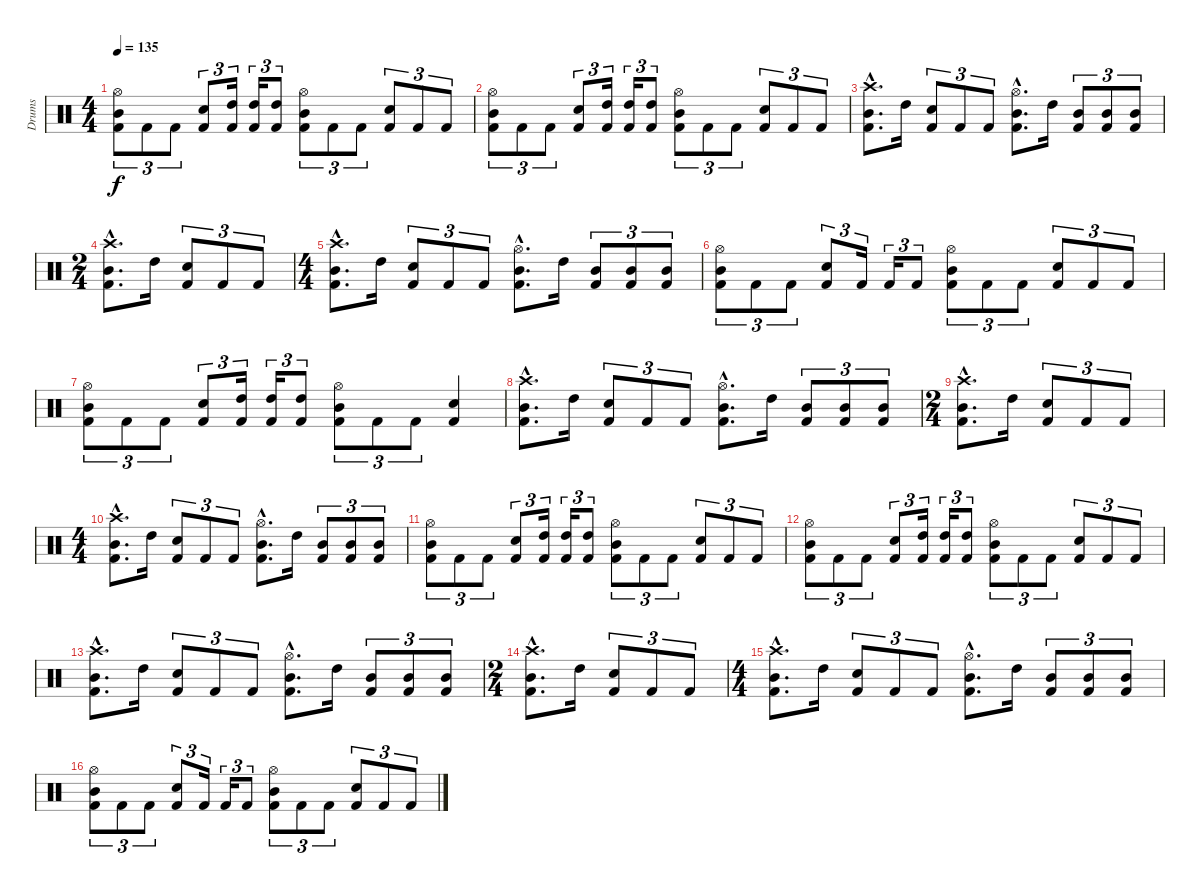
\track ("Drums" "Drums") {instrument percussion}
\staff {score}
\articulation defaults
\ts (4 4)
\tempo 135
\clef neutral
\ks c
("Hi-Hat (open)" "Mid Tom (hit)" "Kick (hit) 2").8{tu (3 2) dy f} "Kick (hit) 2".8{tu (3 2)} "Kick (hit) 2".8{tu (3 2)} ("Snare (hit) 2" "Kick (hit) 2").8{tu (3 2)} ("High Tom (hit)" "Kick (hit) 2").16{tu (3 2)} ("High Tom (hit)" "Kick (hit) 2").16{tu (3 2)} ("High Tom (hit)" "Kick (hit) 2").8{tu (3 2)} ("Hi-Hat (open)" "Mid Tom (hit)" "Kick (hit) 2").8{tu (3 2)} "Kick (hit) 2".8{tu (3 2)} "Kick (hit) 2".8{tu (3 2)} ("Snare (hit) 2" "Kick (hit) 2").8{tu (3 2)} "Kick (hit) 2".8{tu (3 2)} "Kick (hit) 2".8{tu (3 2)} |
("Hi-Hat (open)" "Mid Tom (hit)" "Kick (hit) 2").8{tu (3 2)} "Kick (hit) 2".8{tu (3 2)} "Kick (hit) 2".8{tu (3 2)} ("Snare (hit) 2" "Kick (hit) 2").8{tu (3 2)} ("High Tom (hit)" "Kick (hit) 2").16{tu (3 2)} ("High Tom (hit)" "Kick (hit) 2").16{tu (3 2)} ("High Tom (hit)" "Kick (hit) 2").8{tu (3 2)} ("Hi-Hat (open)" "Mid Tom (hit)" "Kick (hit) 2").8{tu (3 2)} "Kick (hit) 2".8{tu (3 2)} "Kick (hit) 2".8{tu (3 2)} ("Snare (hit) 2" "Kick (hit) 2").8{tu (3 2)} "Kick (hit) 2".8{tu (3 2)} "Kick (hit) 2".8{tu (3 2)} |
("Crash high (hit)"{hac} "Mid Tom (hit)"{hac} "Kick (hit) 2"{hac}).8{d} "High Tom (hit)".16 ("Snare (hit) 2" "Kick (hit) 2").8{tu (3 2)} "Kick (hit) 2".8{tu (3 2)} "Kick (hit) 2".8{tu (3 2)} ("Hi-Hat (open)"{hac} "Mid Tom (hit)"{hac} "Kick (hit) 2"{hac}).8{d} "High Tom (hit)".16 ("Mid Tom (hit)" "Kick (hit) 2").8{tu (3 2)} ("Mid Tom (hit)" "Kick (hit) 2").8{tu (3 2)} ("Mid Tom (hit)" "Kick (hit) 2").8{tu (3 2)} |
\ts (2 4)
("Crash high (hit)"{hac} "Mid Tom (hit)"{hac} "Kick (hit) 2"{hac}).8{d} "High Tom (hit)".16 ("Snare (hit) 2" "Kick (hit) 2").8{tu (3 2)} "Kick (hit) 2".8{tu (3 2)} "Kick (hit) 2".8{tu (3 2)} |
\ts (4 4)
("Crash high (hit)"{hac} "Mid Tom (hit)"{hac} "Kick (hit) 2"{hac}).8{d} "High Tom (hit)".16 ("Snare (hit) 2" "Kick (hit) 2").8{tu (3 2)} "Kick (hit) 2".8{tu (3 2)} "Kick (hit) 2".8{tu (3 2)} ("Hi-Hat (open)"{hac} "Mid Tom (hit)"{hac} "Kick (hit) 2"{hac}).8{d} "High Tom (hit)".16 ("Mid Tom (hit)" "Kick (hit) 2").8{tu (3 2)} ("Mid Tom (hit)" "Kick (hit) 2").8{tu (3 2)} ("Mid Tom (hit)" "Kick (hit) 2").8{tu (3 2)} |
("Hi-Hat (open)" "Mid Tom (hit)" "Kick (hit) 2").8{tu (3 2)} "Kick (hit) 2".8{tu (3 2)} "Kick (hit) 2".8{tu (3 2)} ("Snare (hit) 2" "Kick (hit) 2").8{tu (3 2)} "Kick (hit) 2".16{tu (3 2)} "Kick (hit) 2".16{tu (3 2)} "Kick (hit) 2".8{tu (3 2)} ("Hi-Hat (open)" "Mid Tom (hit)" "Kick (hit) 2").8{tu (3 2)} "Kick (hit) 2".8{tu (3 2)} "Kick (hit) 2".8{tu (3 2)} ("Snare (hit) 2" "Kick (hit) 2").8{tu (3 2)} "Kick (hit) 2".8{tu (3 2)} "Kick (hit) 2".8{tu (3 2)} |
("Hi-Hat (open)" "Mid Tom (hit)" "Kick (hit) 2").8{tu (3 2)} "Kick (hit) 2".8{tu (3 2)} "Kick (hit) 2".8{tu (3 2)} ("Snare (hit) 2" "Kick (hit) 2").8{tu (3 2)} ("High Tom (hit)" "Kick (hit) 2").16{tu (3 2)} ("High Tom (hit)" "Kick (hit) 2").16{tu (3 2)} ("High Tom (hit)" "Kick (hit) 2").8{tu (3 2)} ("Hi-Hat (open)" "Mid Tom (hit)" "Kick (hit) 2").8{tu (3 2)} "Kick (hit) 2".8{tu (3 2)} "Kick (hit) 2".8{tu (3 2)} ("Snare (hit) 2" "Kick (hit) 2").4 |
("Crash high (hit)"{hac} "Mid Tom (hit)"{hac} "Kick (hit) 2"{hac}).8{d} "High Tom (hit)".16 ("Snare (hit) 2" "Kick (hit) 2").8{tu (3 2)} "Kick (hit) 2".8{tu (3 2)} "Kick (hit) 2".8{tu (3 2)} ("Hi-Hat (open)"{hac} "Mid Tom (hit)"{hac} "Kick (hit) 2"{hac}).8{d} "High Tom (hit)".16 ("Mid Tom (hit)" "Kick (hit) 2").8{tu (3 2)} ("Mid Tom (hit)" "Kick (hit) 2").8{tu (3 2)} ("Mid Tom (hit)" "Kick (hit) 2").8{tu (3 2)} |
\ts (2 4)
("Crash high (hit)"{hac} "Mid Tom (hit)"{hac} "Kick (hit) 2"{hac}).8{d} "High Tom (hit)".16 ("Snare (hit) 2" "Kick (hit) 2").8{tu (3 2)} "Kick (hit) 2".8{tu (3 2)} "Kick (hit) 2".8{tu (3 2)} |
\ts (4 4)
("Crash high (hit)"{hac} "Mid Tom (hit)"{hac} "Kick (hit) 2"{hac}).8{d} "High Tom (hit)".16 ("Snare (hit) 2" "Kick (hit) 2").8{tu (3 2)} "Kick (hit) 2".8{tu (3 2)} "Kick (hit) 2".8{tu (3 2)} ("Hi-Hat (open)"{hac} "Mid Tom (hit)"{hac} "Kick (hit) 2"{hac}).8{d} "High Tom (hit)".16 ("Mid Tom (hit)" "Kick (hit) 2").8{tu (3 2)} ("Mid Tom (hit)" "Kick (hit) 2").8{tu (3 2)} ("Mid Tom (hit)" "Kick (hit) 2").8{tu (3 2)} |
("Hi-Hat (open)" "Mid Tom (hit)" "Kick (hit) 2").8{tu (3 2)} "Kick (hit) 2".8{tu (3 2)} "Kick (hit) 2".8{tu (3 2)} ("Snare (hit) 2" "Kick (hit) 2").8{tu (3 2)} ("High Tom (hit)" "Kick (hit) 2").16{tu (3 2)} ("High Tom (hit)" "Kick (hit) 2").16{tu (3 2)} ("High Tom (hit)" "Kick (hit) 2").8{tu (3 2)} ("Hi-Hat (open)" "Mid Tom (hit)" "Kick (hit) 2").8{tu (3 2)} "Kick (hit) 2".8{tu (3 2)} "Kick (hit) 2".8{tu (3 2)} ("Snare (hit) 2" "Kick (hit) 2").8{tu (3 2)} "Kick (hit) 2".8{tu (3 2)} "Kick (hit) 2".8{tu (3 2)} |
("Hi-Hat (open)" "Mid Tom (hit)" "Kick (hit) 2").8{tu (3 2)} "Kick (hit) 2".8{tu (3 2)} "Kick (hit) 2".8{tu (3 2)} ("Snare (hit) 2" "Kick (hit) 2").8{tu (3 2)} ("High Tom (hit)" "Kick (hit) 2").16{tu (3 2)} ("High Tom (hit)" "Kick (hit) 2").16{tu (3 2)} ("High Tom (hit)" "Kick (hit) 2").8{tu (3 2)} ("Hi-Hat (open)" "Mid Tom (hit)" "Kick (hit) 2").8{tu (3 2)} "Kick (hit) 2".8{tu (3 2)} "Kick (hit) 2".8{tu (3 2)} ("Snare (hit) 2" "Kick (hit) 2").8{tu (3 2)} "Kick (hit) 2".8{tu (3 2)} "Kick (hit) 2".8{tu (3 2)} |
("Crash high (hit)"{hac} "Mid Tom (hit)"{hac} "Kick (hit) 2"{hac}).8{d} "High Tom (hit)".16 ("Snare (hit) 2" "Kick (hit) 2").8{tu (3 2)} "Kick (hit) 2".8{tu (3 2)} "Kick (hit) 2".8{tu (3 2)} ("Hi-Hat (open)"{hac} "Mid Tom (hit)"{hac} "Kick (hit) 2"{hac}).8{d} "High Tom (hit)".16 ("Mid Tom (hit)" "Kick (hit) 2").8{tu (3 2)} ("Mid Tom (hit)" "Kick (hit) 2").8{tu (3 2)} ("Mid Tom (hit)" "Kick (hit) 2").8{tu (3 2)} |
\ts (2 4)
("Crash high (hit)"{hac} "Mid Tom (hit)"{hac} "Kick (hit) 2"{hac}).8{d} "High Tom (hit)".16 ("Snare (hit) 2" "Kick (hit) 2").8{tu (3 2)} "Kick (hit) 2".8{tu (3 2)} "Kick (hit) 2".8{tu (3 2)} |
\ts (4 4)
("Crash high (hit)"{hac} "Mid Tom (hit)"{hac} "Kick (hit) 2"{hac}).8{d} "High Tom (hit)".16 ("Snare (hit) 2" "Kick (hit) 2").8{tu (3 2)} "Kick (hit) 2".8{tu (3 2)} "Kick (hit) 2".8{tu (3 2)} ("Hi-Hat (open)"{hac} "Mid Tom (hit)"{hac} "Kick (hit) 2"{hac}).8{d} "High Tom (hit)".16 ("Mid Tom (hit)" "Kick (hit) 2").8{tu (3 2)} ("Mid Tom (hit)" "Kick (hit) 2").8{tu (3 2)} ("Mid Tom (hit)" "Kick (hit) 2").8{tu (3 2)} |
("Hi-Hat (open)" "Mid Tom (hit)" "Kick (hit) 2").8{tu (3 2)} "Kick (hit) 2".8{tu (3 2)} "Kick (hit) 2".8{tu (3 2)} ("Snare (hit) 2" "Kick (hit) 2").8{tu (3 2)} "Kick (hit) 2".16{tu (3 2)} "Kick (hit) 2".16{tu (3 2)} "Kick (hit) 2".8{tu (3 2)} ("Hi-Hat (open)" "Mid Tom (hit)" "Kick (hit) 2").8{tu (3 2)} "Kick (hit) 2".8{tu (3 2)} "Kick (hit) 2".8{tu (3 2)} ("Snare (hit) 2" "Kick (hit) 2").8{tu (3 2)} "Kick (hit) 2".8{tu (3 2)} "Kick (hit) 2".8{tu (3 2)}
